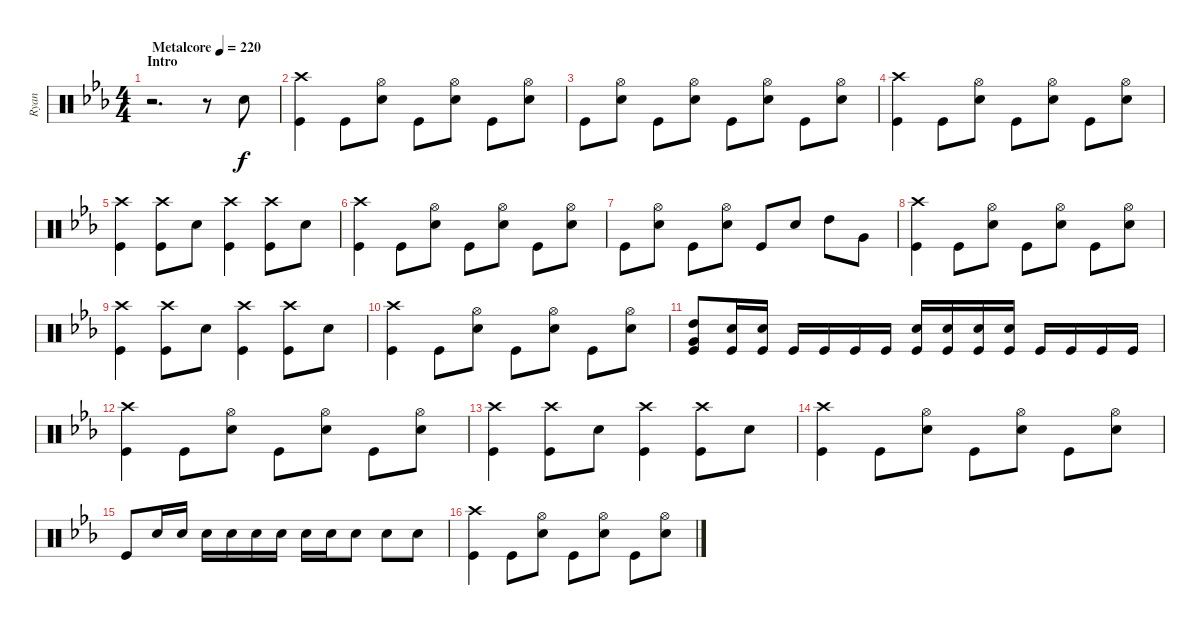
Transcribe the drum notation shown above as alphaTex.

\track ("Ryan" "Ryan") {instrument percussion}
\staff {score}
\articulation defaults
\ts (4 4)
\section ("" "Intro")
\tempo (220 "Metalcore")
\clef neutral
\ks cminor
r.2{d dy f} r.8 "Snare (hit) 2".8 |
("Kick (hit)" "Crash high (hit)").4 "Kick (hit)".8 ("Snare (hit) 2" "Hi-Hat (open)").8 "Kick (hit)".8 ("Snare (hit) 2" "Hi-Hat (open)").8 "Kick (hit)".8 ("Snare (hit) 2" "Hi-Hat (open)").8 |
"Kick (hit)".8 ("Snare (hit) 2" "Hi-Hat (open)").8 "Kick (hit)".8 ("Snare (hit) 2" "Hi-Hat (open)").8 "Kick (hit)".8 ("Snare (hit) 2" "Hi-Hat (open)").8 "Kick (hit)".8 ("Snare (hit) 2" "Hi-Hat (open)").8 |
("Kick (hit)" "Crash high (hit)").4 "Kick (hit)".8 ("Snare (hit) 2" "Hi-Hat (open)").8 "Kick (hit)".8 ("Snare (hit) 2" "Hi-Hat (open)").8 "Kick (hit)".8 ("Snare (hit) 2" "Hi-Hat (open)").8 |
("Kick (hit)" "Crash high (hit)").4 ("Crash high (hit)" "Kick (hit)").8 "Snare (hit) 2".8 ("Kick (hit)" "Crash high (hit)").4 ("Crash high (hit)" "Kick (hit)").8 "Snare (hit) 2".8 |
("Kick (hit)" "Crash high (hit)").4 "Kick (hit)".8 ("Snare (hit) 2" "Hi-Hat (open)").8 "Kick (hit)".8 ("Snare (hit) 2" "Hi-Hat (open)").8 "Kick (hit)".8 ("Snare (hit) 2" "Hi-Hat (open)").8 |
"Kick (hit)".8 ("Snare (hit) 2" "Hi-Hat (open)").8 "Kick (hit)".8 ("Snare (hit) 2" "Hi-Hat (open)").8 "Kick (hit)".8 "Snare (hit) 2".8 "High Tom (hit)".8 "Very Low Tom (hit)".8 |
("Kick (hit)" "Crash high (hit)").4 "Kick (hit)".8 ("Snare (hit) 2" "Hi-Hat (open)").8 "Kick (hit)".8 ("Snare (hit) 2" "Hi-Hat (open)").8 "Kick (hit)".8 ("Snare (hit) 2" "Hi-Hat (open)").8 |
("Kick (hit)" "Crash high (hit)").4 ("Crash high (hit)" "Kick (hit)").8 "Snare (hit) 2".8 ("Kick (hit)" "Crash high (hit)").4 ("Crash high (hit)" "Kick (hit)").8 "Snare (hit) 2".8 |
("Kick (hit)" "Crash high (hit)").4 "Kick (hit)".8 ("Snare (hit) 2" "Hi-Hat (open)").8 "Kick (hit)".8 ("Snare (hit) 2" "Hi-Hat (open)").8 "Kick (hit)".8 ("Snare (hit) 2" "Hi-Hat (open)").8 |
("Kick (hit)" "High Tom (hit)" "Very Low Tom (hit)").8 ("Snare (hit) 2" "Kick (hit)").16 ("Snare (hit) 2" "Kick (hit)").16 "Kick (hit)".16 "Kick (hit)".16 "Kick (hit)".16 "Kick (hit)".16 ("Snare (hit) 2" "Kick (hit)").16 ("Snare (hit) 2" "Kick (hit)").16 ("Snare (hit) 2" "Kick (hit)").16 ("Snare (hit) 2" "Kick (hit)").16 "Kick (hit)".16 "Kick (hit)".16 "Kick (hit)".16 "Kick (hit)".16 |
("Kick (hit)" "Crash high (hit)").4 "Kick (hit)".8 ("Snare (hit) 2" "Hi-Hat (open)").8 "Kick (hit)".8 ("Snare (hit) 2" "Hi-Hat (open)").8 "Kick (hit)".8 ("Snare (hit) 2" "Hi-Hat (open)").8 |
("Kick (hit)" "Crash high (hit)").4 ("Crash high (hit)" "Kick (hit)").8 "Snare (hit) 2".8 ("Kick (hit)" "Crash high (hit)").4 ("Crash high (hit)" "Kick (hit)").8 "Snare (hit) 2".8 |
("Kick (hit)" "Crash high (hit)").4 "Kick (hit)".8 ("Snare (hit) 2" "Hi-Hat (open)").8 "Kick (hit)".8 ("Snare (hit) 2" "Hi-Hat (open)").8 "Kick (hit)".8 ("Snare (hit) 2" "Hi-Hat (open)").8 |
"Kick (hit)".8 "Snare (hit) 2".16 "Snare (hit) 2".16 "Snare (hit) 2".16 "Snare (hit) 2".16 "Snare (hit) 2".16 "Snare (hit) 2".16 "Snare (hit) 2".16 "Snare (hit) 2".16 "Snare (hit) 2".8 "Snare (hit) 2".8 "Snare (hit) 2".8 |
("Kick (hit)" "Crash high (hit)").4 "Kick (hit)".8 ("Snare (hit) 2" "Hi-Hat (open)").8 "Kick (hit)".8 ("Snare (hit) 2" "Hi-Hat (open)").8 "Kick (hit)".8 ("Snare (hit) 2" "Hi-Hat (open)").8
